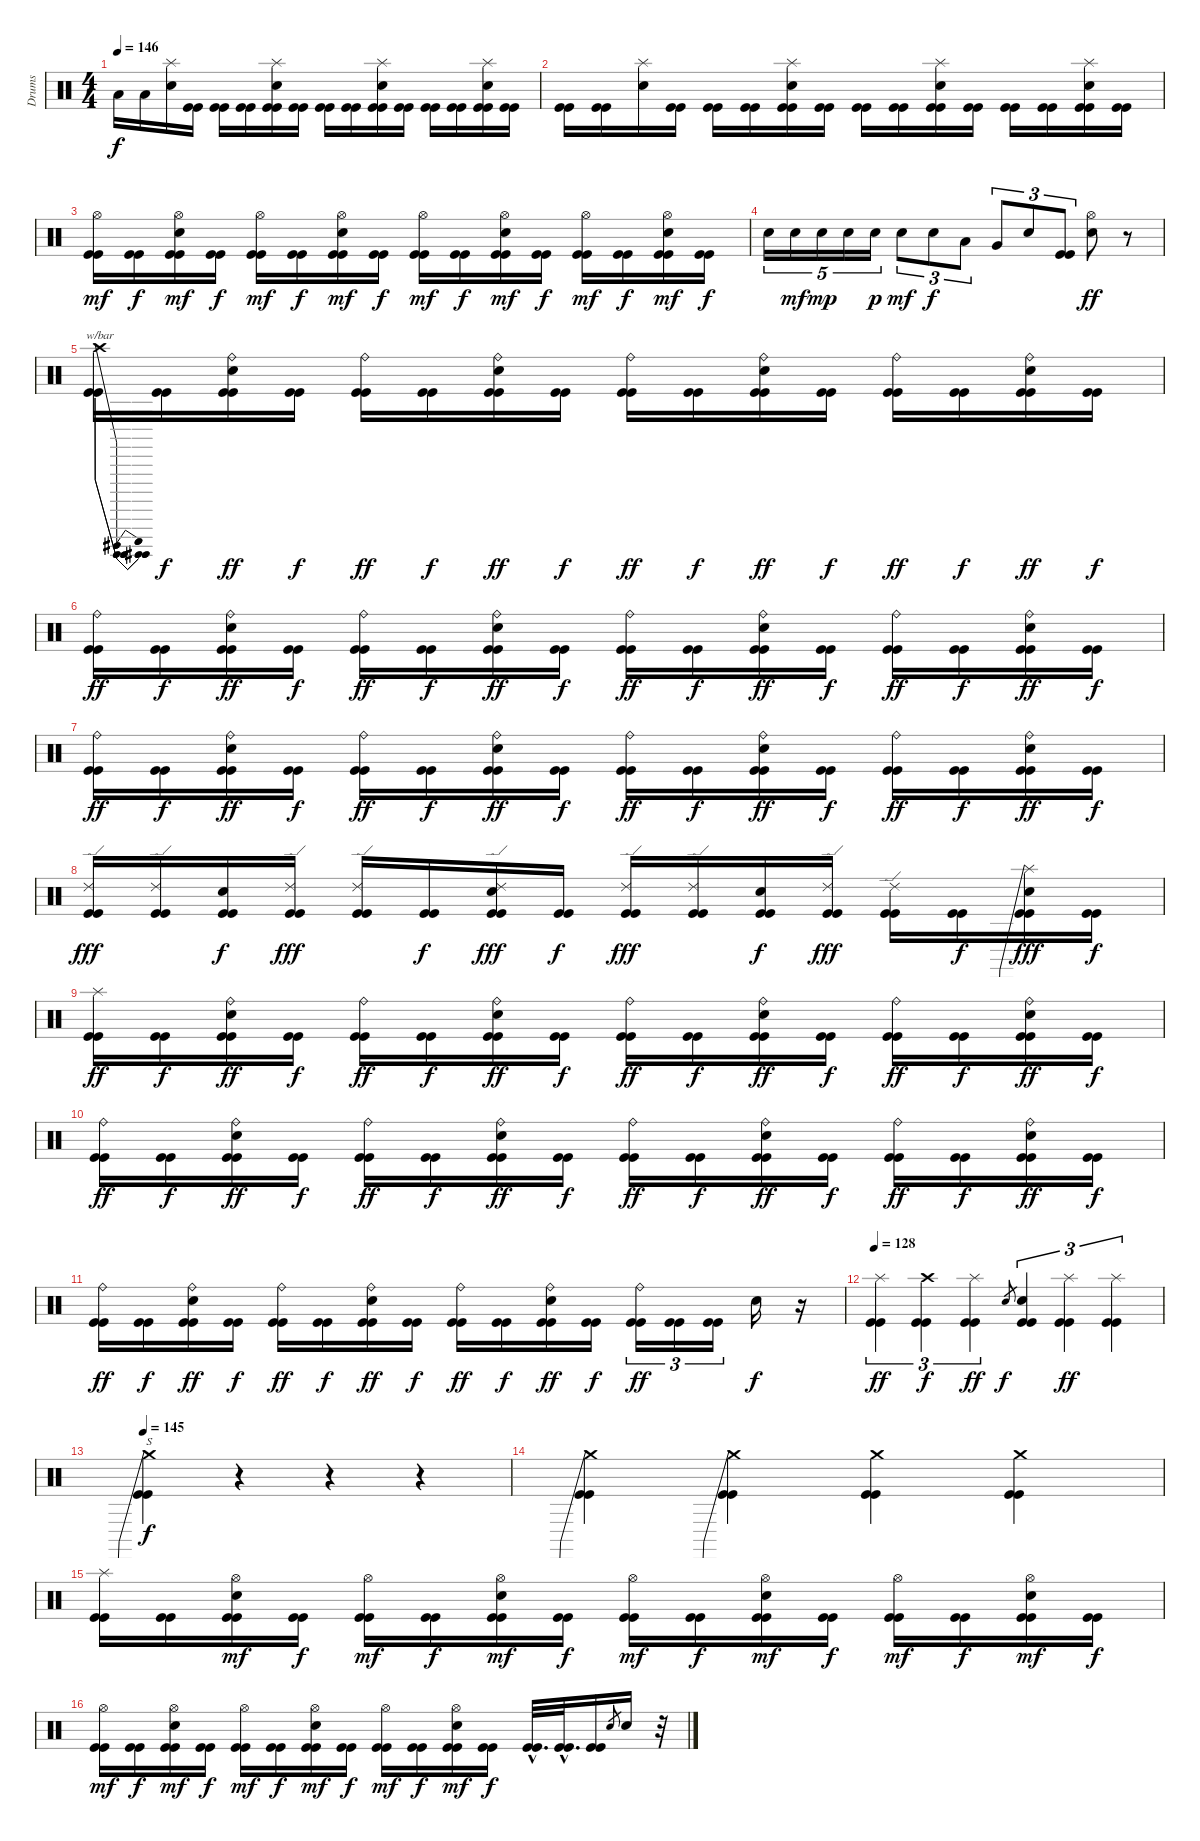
\track ("Drums" "Drums") {instrument percussion}
\staff {score}
\articulation defaults
\ts (4 4)
\tempo 146
\clef neutral
\ks c "Low Floor Tom (hit)".16{dy f} "Low Floor Tom (hit)".16
("Splash (hit)" "Electric Snare (hit)").16 ("Kick (hit)" "Kick (hit)").16 ("Kick (hit)" "Kick (hit)").16 ("Kick (hit)" "Kick (hit)").16 ("Splash (hit)" "Electric Snare (hit)" "Kick (hit)" "Kick (hit)").16 ("Kick (hit)" "Kick (hit)").16 ("Kick (hit)" "Kick (hit)").16 ("Kick (hit)" "Kick (hit)").16 ("Splash (hit)" "Electric Snare (hit)" "Kick (hit)" "Kick (hit)").16 ("Kick (hit)" "Kick (hit)").16 ("Kick (hit)" "Kick (hit)").16 ("Kick (hit)" "Kick (hit)").16 ("Splash (hit)" "Electric Snare (hit)" "Kick (hit)" "Kick (hit)").16 ("Kick (hit)" "Kick (hit)").16 |
("Kick (hit)" "Kick (hit)").16 ("Kick (hit)" "Kick (hit)").16 ("Splash (hit)" "Electric Snare (hit)").16 ("Kick (hit)" "Kick (hit)").16 ("Kick (hit)" "Kick (hit)").16 ("Kick (hit)" "Kick (hit)").16 ("Splash (hit)" "Electric Snare (hit)" "Kick (hit)" "Kick (hit)").16 ("Kick (hit)" "Kick (hit)").16 ("Kick (hit)" "Kick (hit)").16 ("Kick (hit)" "Kick (hit)").16 ("Splash (hit)" "Electric Snare (hit)" "Kick (hit)" "Kick (hit)").16 ("Kick (hit)" "Kick (hit)").16 ("Kick (hit)" "Kick (hit)").16 ("Kick (hit)" "Kick (hit)").16 ("Splash (hit)" "Electric Snare (hit)" "Kick (hit)" "Kick (hit)").16 ("Kick (hit)" "Kick (hit)").16 |
("Hi-Hat (open)" "Kick (hit)" "Kick (hit)").16{dy mf} ("Kick (hit)" "Kick (hit)").16{dy f} ("Hi-Hat (open)" "Electric Snare (hit)" "Kick (hit)" "Kick (hit)").16{dy mf} ("Kick (hit)" "Kick (hit)").16{dy f} ("Hi-Hat (open)" "Kick (hit)" "Kick (hit)").16{dy mf} ("Kick (hit)" "Kick (hit)").16{dy f} ("Hi-Hat (open)" "Electric Snare (hit)" "Kick (hit)" "Kick (hit)").16{dy mf} ("Kick (hit)" "Kick (hit)").16{dy f} ("Hi-Hat (open)" "Kick (hit)" "Kick (hit)").16{dy mf} ("Kick (hit)" "Kick (hit)").16{dy f} ("Hi-Hat (open)" "Electric Snare (hit)" "Kick (hit)" "Kick (hit)").16{dy mf} ("Kick (hit)" "Kick (hit)").16{dy f} ("Hi-Hat (open)" "Kick (hit)" "Kick (hit)").16{dy mf} ("Kick (hit)" "Kick (hit)").16{dy f} ("Hi-Hat (open)" "Electric Snare (hit)" "Kick (hit)" "Kick (hit)").16{dy mf} ("Kick (hit)" "Kick (hit)").16{dy f} |
"Electric Snare (hit)".16{tu (5 4)} "Electric Snare (hit)".16{tu (5 4) dy mf} "Electric Snare (hit)".16{tu (5 4) dy mp} "Electric Snare (hit)".16{tu (5 4)} "Electric Snare (hit)".16{tu (5 4) dy p} "Electric Snare (hit)".8{tu (3 2) dy mf} "Electric Snare (hit)".8{tu (3 2) dy f} "Low Tom (hit)".8{tu (3 2)} "Very Low Tom (hit)".8{tu (3 2)} "Electric Snare (hit)".8{tu (3 2)} ("Kick (hit)" "Kick (hit)").8{tu (3 2)} ("Hi-Hat (open)" "Electric Snare (hit)").8{dy ff} r.8 |
("Crash high (hit)" "Kick (hit)" "Kick (hit)").16{tbe (dip default 0 0 30 -2 60 0)} ("Kick (hit)" "Kick (hit)").16{dy f} ("Ride (bell)" "Electric Snare (hit)" "Kick (hit)" "Kick (hit)").16{dy ff} ("Kick (hit)" "Kick (hit)").16{dy f} ("Ride (bell)" "Kick (hit)" "Kick (hit)").16{dy ff} ("Kick (hit)" "Kick (hit)").16{dy f} ("Ride (bell)" "Electric Snare (hit)" "Kick (hit)" "Kick (hit)").16{dy ff} ("Kick (hit)" "Kick (hit)").16{dy f} ("Ride (bell)" "Kick (hit)" "Kick (hit)").16{dy ff} ("Kick (hit)" "Kick (hit)").16{dy f} ("Ride (bell)" "Electric Snare (hit)" "Kick (hit)" "Kick (hit)").16{dy ff} ("Kick (hit)" "Kick (hit)").16{dy f} ("Ride (bell)" "Kick (hit)" "Kick (hit)").16{dy ff} ("Kick (hit)" "Kick (hit)").16{dy f} ("Ride (bell)" "Electric Snare (hit)" "Kick (hit)" "Kick (hit)").16{dy ff} ("Kick (hit)" "Kick (hit)").16{dy f} |
("Ride (bell)" "Kick (hit)" "Kick (hit)").16{dy ff} ("Kick (hit)" "Kick (hit)").16{dy f} ("Ride (bell)" "Electric Snare (hit)" "Kick (hit)" "Kick (hit)").16{dy ff} ("Kick (hit)" "Kick (hit)").16{dy f} ("Ride (bell)" "Kick (hit)" "Kick (hit)").16{dy ff} ("Kick (hit)" "Kick (hit)").16{dy f} ("Ride (bell)" "Electric Snare (hit)" "Kick (hit)" "Kick (hit)").16{dy ff} ("Kick (hit)" "Kick (hit)").16{dy f} ("Ride (bell)" "Kick (hit)" "Kick (hit)").16{dy ff} ("Kick (hit)" "Kick (hit)").16{dy f} ("Ride (bell)" "Electric Snare (hit)" "Kick (hit)" "Kick (hit)").16{dy ff} ("Kick (hit)" "Kick (hit)").16{dy f} ("Ride (bell)" "Kick (hit)" "Kick (hit)").16{dy ff} ("Kick (hit)" "Kick (hit)").16{dy f} ("Ride (bell)" "Electric Snare (hit)" "Kick (hit)" "Kick (hit)").16{dy ff} ("Kick (hit)" "Kick (hit)").16{dy f} |
("Ride (bell)" "Kick (hit)" "Kick (hit)").16{dy ff} ("Kick (hit)" "Kick (hit)").16{dy f} ("Ride (bell)" "Electric Snare (hit)" "Kick (hit)" "Kick (hit)").16{dy ff} ("Kick (hit)" "Kick (hit)").16{dy f} ("Ride (bell)" "Kick (hit)" "Kick (hit)").16{dy ff} ("Kick (hit)" "Kick (hit)").16{dy f} ("Ride (bell)" "Electric Snare (hit)" "Kick (hit)" "Kick (hit)").16{dy ff} ("Kick (hit)" "Kick (hit)").16{dy f} ("Ride (bell)" "Kick (hit)" "Kick (hit)").16{dy ff} ("Kick (hit)" "Kick (hit)").16{dy f} ("Ride (bell)" "Electric Snare (hit)" "Kick (hit)" "Kick (hit)").16{dy ff} ("Kick (hit)" "Kick (hit)").16{dy f} ("Ride (bell)" "Kick (hit)" "Kick (hit)").16{dy ff} ("Kick (hit)" "Kick (hit)").16{dy f} ("Ride (bell)" "Electric Snare (hit)" "Kick (hit)" "Kick (hit)").16{dy ff} ("Kick (hit)" "Kick (hit)").16{dy f} |
("Ride (edge) 2" "Kick (hit)" "Kick (hit)").16{dy fff} ("Ride (edge) 2" "Kick (hit)" "Kick (hit)").16 ("Electric Snare (hit)" "Kick (hit)" "Kick (hit)").16{dy f} ("Ride (edge) 2" "Kick (hit)" "Kick (hit)").16{dy fff} ("Ride (edge) 2" "Kick (hit)" "Kick (hit)").16 ("Kick (hit)" "Kick (hit)").16{dy f} ("Ride (edge) 2" "Electric Snare (hit)" "Kick (hit)" "Kick (hit)").16{dy fff} ("Kick (hit)" "Kick (hit)").16{dy f} ("Ride (edge) 2" "Kick (hit)" "Kick (hit)").16{dy fff} ("Ride (edge) 2" "Kick (hit)" "Kick (hit)").16 ("Electric Snare (hit)" "Kick (hit)" "Kick (hit)").16{dy f} ("Ride (edge) 2" "Kick (hit)" "Kick (hit)").16{dy fff} ("Ride (edge) 2" "Kick (hit)" "Kick (hit)").16 ("Kick (hit)" "Kick (hit)").16{dy f} ("Splash (hit)"{be (prebend 0 3 60 3)} "Electric Snare (hit)" "Kick (hit)" "Kick (hit)").16{dy fff} ("Kick (hit)" "Kick (hit)").16{dy f} |
("Splash (hit)" "Kick (hit)" "Kick (hit)").16{dy ff} ("Kick (hit)" "Kick (hit)").16{dy f} ("Ride (bell)" "Electric Snare (hit)" "Kick (hit)" "Kick (hit)").16{dy ff} ("Kick (hit)" "Kick (hit)").16{dy f} ("Ride (bell)" "Kick (hit)" "Kick (hit)").16{dy ff} ("Kick (hit)" "Kick (hit)").16{dy f} ("Ride (bell)" "Electric Snare (hit)" "Kick (hit)" "Kick (hit)").16{dy ff} ("Kick (hit)" "Kick (hit)").16{dy f} ("Ride (bell)" "Kick (hit)" "Kick (hit)").16{dy ff} ("Kick (hit)" "Kick (hit)").16{dy f} ("Ride (bell)" "Electric Snare (hit)" "Kick (hit)" "Kick (hit)").16{dy ff} ("Kick (hit)" "Kick (hit)").16{dy f} ("Ride (bell)" "Kick (hit)" "Kick (hit)").16{dy ff} ("Kick (hit)" "Kick (hit)").16{dy f} ("Ride (bell)" "Electric Snare (hit)" "Kick (hit)" "Kick (hit)").16{dy ff} ("Kick (hit)" "Kick (hit)").16{dy f} |
("Ride (bell)" "Kick (hit)" "Kick (hit)").16{dy ff} ("Kick (hit)" "Kick (hit)").16{dy f} ("Ride (bell)" "Electric Snare (hit)" "Kick (hit)" "Kick (hit)").16{dy ff} ("Kick (hit)" "Kick (hit)").16{dy f} ("Ride (bell)" "Kick (hit)" "Kick (hit)").16{dy ff} ("Kick (hit)" "Kick (hit)").16{dy f} ("Ride (bell)" "Electric Snare (hit)" "Kick (hit)" "Kick (hit)").16{dy ff} ("Kick (hit)" "Kick (hit)").16{dy f} ("Ride (bell)" "Kick (hit)" "Kick (hit)").16{dy ff} ("Kick (hit)" "Kick (hit)").16{dy f} ("Ride (bell)" "Electric Snare (hit)" "Kick (hit)" "Kick (hit)").16{dy ff} ("Kick (hit)" "Kick (hit)").16{dy f} ("Ride (bell)" "Kick (hit)" "Kick (hit)").16{dy ff} ("Kick (hit)" "Kick (hit)").16{dy f} ("Ride (bell)" "Electric Snare (hit)" "Kick (hit)" "Kick (hit)").16{dy ff} ("Kick (hit)" "Kick (hit)").16{dy f} |
("Ride (bell)" "Kick (hit)" "Kick (hit)").16{dy ff} ("Kick (hit)" "Kick (hit)").16{dy f} ("Ride (bell)" "Electric Snare (hit)" "Kick (hit)" "Kick (hit)").16{dy ff} ("Kick (hit)" "Kick (hit)").16{dy f} ("Ride (bell)" "Kick (hit)" "Kick (hit)").16{dy ff} ("Kick (hit)" "Kick (hit)").16{dy f} ("Ride (bell)" "Electric Snare (hit)" "Kick (hit)" "Kick (hit)").16{dy ff} ("Kick (hit)" "Kick (hit)").16{dy f} ("Ride (bell)" "Kick (hit)" "Kick (hit)").16{dy ff} ("Kick (hit)" "Kick (hit)").16{dy f} ("Ride (bell)" "Electric Snare (hit)" "Kick (hit)" "Kick (hit)").16{dy ff} ("Kick (hit)" "Kick (hit)").16{dy f} ("Ride (bell)" "Kick (hit)" "Kick (hit)").16{tu (3 2) dy ff} ("Kick (hit)" "Kick (hit)").16{tu (3 2)} ("Kick (hit)" "Kick (hit)").16{tu (3 2)} "Electric Snare (hit)".16{dy f} r.16 |
\tempo 128
("Splash (hit)" "Kick (hit)" "Kick (hit)").4{tu (3 2) dy ff} ("Crash high (hit)" "Kick (hit)" "Kick (hit)").4{tu (3 2) dy f} ("Splash (hit)" "Kick (hit)" "Kick (hit)").4{tu (3 2) dy ff} "Electric Snare (hit)".8{gr dy f} ("Electric Snare (hit)" "Kick (hit)" "Kick (hit)").4{tu (3 2)} ("Splash (hit)" "Kick (hit)" "Kick (hit)").4{tu (3 2) dy ff} ("Splash (hit)" "Kick (hit)" "Kick (hit)").4{tu (3 2)} |
\tempo 145
("Crash medium (hit)"{be (prebend 0 3 60 3)} "Kick (hit)" "Kick (hit)").4{s dy f} r.4{volume 0} r.4 r.4 |
("Crash medium (hit)"{be (prebend 0 5 60 5)} "Kick (hit)" "Kick (hit)").4{volume 11} ("Crash medium (hit)"{be (prebend 0 2 60 2)} "Kick (hit)" "Kick (hit)").4 ("Crash medium (hit)" "Kick (hit)" "Kick (hit)").4 ("Crash medium (hit)" "Kick (hit)" "Kick (hit)").4 |
("Splash (hit)" "Kick (hit)" "Kick (hit)").16 ("Kick (hit)" "Kick (hit)").16 ("Hi-Hat (open)" "Electric Snare (hit)" "Kick (hit)" "Kick (hit)").16{dy mf} ("Kick (hit)" "Kick (hit)").16{dy f} ("Hi-Hat (open)" "Kick (hit)" "Kick (hit)").16{dy mf} ("Kick (hit)" "Kick (hit)").16{dy f} ("Hi-Hat (open)" "Electric Snare (hit)" "Kick (hit)" "Kick (hit)").16{dy mf} ("Kick (hit)" "Kick (hit)").16{dy f} ("Hi-Hat (open)" "Kick (hit)" "Kick (hit)").16{dy mf} ("Kick (hit)" "Kick (hit)").16{dy f} ("Hi-Hat (open)" "Electric Snare (hit)" "Kick (hit)" "Kick (hit)").16{dy mf} ("Kick (hit)" "Kick (hit)").16{dy f} ("Hi-Hat (open)" "Kick (hit)" "Kick (hit)").16{dy mf} ("Kick (hit)" "Kick (hit)").16{dy f} ("Hi-Hat (open)" "Electric Snare (hit)" "Kick (hit)" "Kick (hit)").16{dy mf} ("Kick (hit)" "Kick (hit)").16{dy f} |
("Hi-Hat (open)" "Kick (hit)" "Kick (hit)").16{dy mf} ("Kick (hit)" "Kick (hit)").16{dy f} ("Hi-Hat (open)" "Electric Snare (hit)" "Kick (hit)" "Kick (hit)").16{dy mf} ("Kick (hit)" "Kick (hit)").16{dy f} ("Hi-Hat (open)" "Kick (hit)" "Kick (hit)").16{dy mf} ("Kick (hit)" "Kick (hit)").16{dy f} ("Hi-Hat (open)" "Electric Snare (hit)" "Kick (hit)" "Kick (hit)").16{dy mf} ("Kick (hit)" "Kick (hit)").16{dy f} ("Hi-Hat (open)" "Kick (hit)" "Kick (hit)").16{dy mf} ("Kick (hit)" "Kick (hit)").16{dy f} ("Hi-Hat (open)" "Electric Snare (hit)" "Kick (hit)" "Kick (hit)").16{dy mf} ("Kick (hit)" "Kick (hit)").16{dy f} ("Kick (hit)"{hac} "Kick (hit)"{hac}).32{d} ("Kick (hit)"{hac} "Kick (hit)"{hac}).32{d} ("Kick (hit)" "Kick (hit)").16 "Electric Snare (hit)".8{gr} "Electric Snare (hit)".16 r.32
